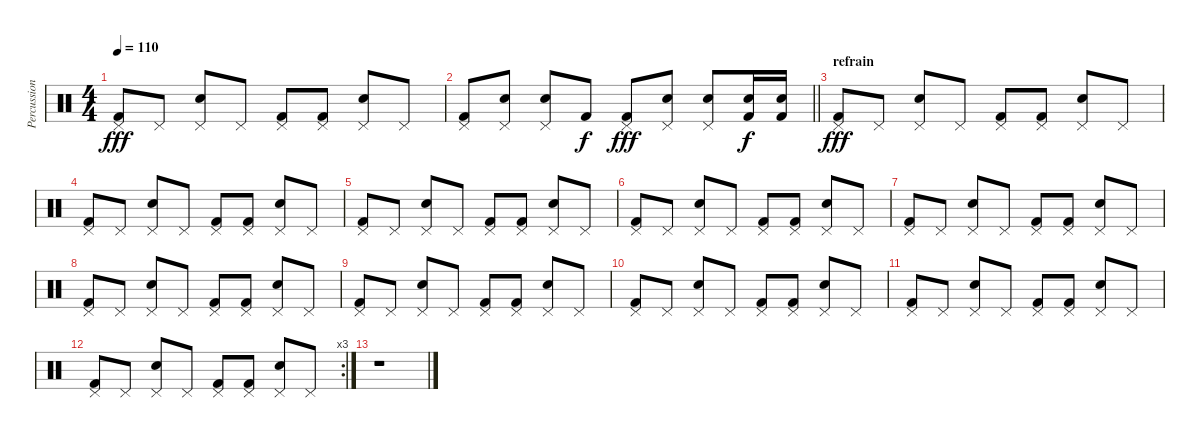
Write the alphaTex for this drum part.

\track ("Percussions" "Percussion") {instrument percussion}
\staff {score}
\articulation defaults
\ts (4 4)
\tempo 110
\clef neutral
\ks c
("Pedal Hi-Hat (hit)" "Kick (hit) 2").8{dy fff} "Pedal Hi-Hat (hit)".8 ("Pedal Hi-Hat (hit)" "Electric Snare (hit)").8 "Pedal Hi-Hat (hit)".8 ("Pedal Hi-Hat (hit)" "Kick (hit) 2").8 ("Pedal Hi-Hat (hit)" "Kick (hit) 2").8 ("Pedal Hi-Hat (hit)" "Electric Snare (hit)").8 "Pedal Hi-Hat (hit)".8 |
\barLineRight lightlight
("Pedal Hi-Hat (hit)" "Kick (hit) 2").8 ("Pedal Hi-Hat (hit)" "Electric Snare (hit)").8 ("Pedal Hi-Hat (hit)" "Electric Snare (hit)").8 "Kick (hit) 2".8{dy f} ("Pedal Hi-Hat (hit)" "Kick (hit) 2").8{dy fff} ("Pedal Hi-Hat (hit)" "Electric Snare (hit)").8 ("Pedal Hi-Hat (hit)" "Electric Snare (hit)").8 ("Electric Snare (hit)" "Kick (hit) 2").16{dy f} ("Electric Snare (hit)" "Kick (hit) 2").16 |
\section ("" "refrain")
("Pedal Hi-Hat (hit)" "Kick (hit) 2").8{dy fff} "Pedal Hi-Hat (hit)".8 ("Pedal Hi-Hat (hit)" "Electric Snare (hit)").8 "Pedal Hi-Hat (hit)".8 ("Pedal Hi-Hat (hit)" "Kick (hit) 2").8 ("Pedal Hi-Hat (hit)" "Kick (hit) 2").8 ("Pedal Hi-Hat (hit)" "Electric Snare (hit)").8 "Pedal Hi-Hat (hit)".8 |
("Pedal Hi-Hat (hit)" "Kick (hit) 2").8 "Pedal Hi-Hat (hit)".8 ("Pedal Hi-Hat (hit)" "Electric Snare (hit)").8 "Pedal Hi-Hat (hit)".8 ("Pedal Hi-Hat (hit)" "Kick (hit) 2").8 ("Pedal Hi-Hat (hit)" "Kick (hit) 2").8 ("Pedal Hi-Hat (hit)" "Electric Snare (hit)").8 "Pedal Hi-Hat (hit)".8 |
("Pedal Hi-Hat (hit)" "Kick (hit) 2").8 "Pedal Hi-Hat (hit)".8 ("Pedal Hi-Hat (hit)" "Electric Snare (hit)").8 "Pedal Hi-Hat (hit)".8 ("Pedal Hi-Hat (hit)" "Kick (hit) 2").8 ("Pedal Hi-Hat (hit)" "Kick (hit) 2").8 ("Pedal Hi-Hat (hit)" "Electric Snare (hit)").8 "Pedal Hi-Hat (hit)".8 |
("Pedal Hi-Hat (hit)" "Kick (hit) 2").8 "Pedal Hi-Hat (hit)".8 ("Pedal Hi-Hat (hit)" "Electric Snare (hit)").8 "Pedal Hi-Hat (hit)".8 ("Pedal Hi-Hat (hit)" "Kick (hit) 2").8 ("Pedal Hi-Hat (hit)" "Kick (hit) 2").8 ("Pedal Hi-Hat (hit)" "Electric Snare (hit)").8 "Pedal Hi-Hat (hit)".8 |
("Pedal Hi-Hat (hit)" "Kick (hit) 2").8 "Pedal Hi-Hat (hit)".8 ("Pedal Hi-Hat (hit)" "Electric Snare (hit)").8 "Pedal Hi-Hat (hit)".8 ("Pedal Hi-Hat (hit)" "Kick (hit) 2").8 ("Pedal Hi-Hat (hit)" "Kick (hit) 2").8 ("Pedal Hi-Hat (hit)" "Electric Snare (hit)").8 "Pedal Hi-Hat (hit)".8 |
("Pedal Hi-Hat (hit)" "Kick (hit) 2").8 "Pedal Hi-Hat (hit)".8 ("Pedal Hi-Hat (hit)" "Electric Snare (hit)").8 "Pedal Hi-Hat (hit)".8 ("Pedal Hi-Hat (hit)" "Kick (hit) 2").8 ("Pedal Hi-Hat (hit)" "Kick (hit) 2").8 ("Pedal Hi-Hat (hit)" "Electric Snare (hit)").8 "Pedal Hi-Hat (hit)".8 |
("Pedal Hi-Hat (hit)" "Kick (hit) 2").8 "Pedal Hi-Hat (hit)".8 ("Pedal Hi-Hat (hit)" "Electric Snare (hit)").8 "Pedal Hi-Hat (hit)".8 ("Pedal Hi-Hat (hit)" "Kick (hit) 2").8 ("Pedal Hi-Hat (hit)" "Kick (hit) 2").8 ("Pedal Hi-Hat (hit)" "Electric Snare (hit)").8 "Pedal Hi-Hat (hit)".8 |
("Pedal Hi-Hat (hit)" "Kick (hit) 2").8 "Pedal Hi-Hat (hit)".8 ("Pedal Hi-Hat (hit)" "Electric Snare (hit)").8 "Pedal Hi-Hat (hit)".8 ("Pedal Hi-Hat (hit)" "Kick (hit) 2").8 ("Pedal Hi-Hat (hit)" "Kick (hit) 2").8 ("Pedal Hi-Hat (hit)" "Electric Snare (hit)").8 "Pedal Hi-Hat (hit)".8 |
("Pedal Hi-Hat (hit)" "Kick (hit) 2").8 "Pedal Hi-Hat (hit)".8 ("Pedal Hi-Hat (hit)" "Electric Snare (hit)").8 "Pedal Hi-Hat (hit)".8 ("Pedal Hi-Hat (hit)" "Kick (hit) 2").8 ("Pedal Hi-Hat (hit)" "Kick (hit) 2").8 ("Pedal Hi-Hat (hit)" "Electric Snare (hit)").8 "Pedal Hi-Hat (hit)".8 |
\rc 3
("Pedal Hi-Hat (hit)" "Kick (hit) 2").8 "Pedal Hi-Hat (hit)".8 ("Pedal Hi-Hat (hit)" "Electric Snare (hit)").8 "Pedal Hi-Hat (hit)".8 ("Pedal Hi-Hat (hit)" "Kick (hit) 2").8 ("Pedal Hi-Hat (hit)" "Kick (hit) 2").8 ("Pedal Hi-Hat (hit)" "Electric Snare (hit)").8 "Pedal Hi-Hat (hit)".8 |
r.1
